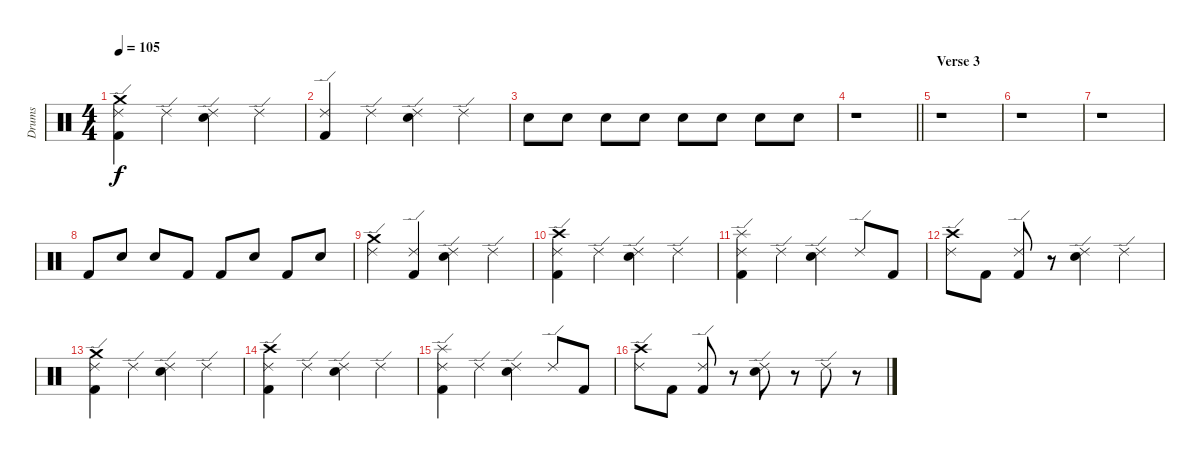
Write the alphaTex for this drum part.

\track ("Drums" "Drums") {instrument percussion}
\staff {score}
\articulation defaults
\ts (4 4)
\tempo 105
\clef neutral
\ks c
("Crash medium (hit)" "Ride (edge) 2" "Kick (hit) 2").4{dy f} "Ride (edge) 2".4 ("Ride (edge) 2" "Electric Snare (hit)").4 "Ride (edge) 2".4 |
("Ride (edge) 2" "Kick (hit) 2").4 "Ride (edge) 2".4 ("Ride (edge) 2" "Electric Snare (hit)").4 "Ride (edge) 2".4 |
"Electric Snare (hit)".8 "Electric Snare (hit)".8 "Electric Snare (hit)".8 "Electric Snare (hit)".8 "Electric Snare (hit)".8 "Electric Snare (hit)".8 "Electric Snare (hit)".8 "Electric Snare (hit)".8 |
\barLineRight lightlight
r.1 |
\section ("" "Verse 3")
r.1 |
r.1 |
r.1 |
"Kick (hit) 2".8 "Electric Snare (hit)".8 "Electric Snare (hit)".8 "Kick (hit) 2".8 "Kick (hit) 2".8 "Electric Snare (hit)".8 "Kick (hit) 2".8 "Electric Snare (hit)".8 |
("Crash medium (hit)" "Ride (edge) 2").4 ("Ride (edge) 2" "Kick (hit) 2").4 ("Ride (edge) 2" "Electric Snare (hit)").4 "Ride (edge) 2".4 |
("Crash high (hit)" "Ride (edge) 2" "Kick (hit) 2").4 "Ride (edge) 2".4 ("Ride (edge) 2" "Electric Snare (hit)").4 "Ride (edge) 2".4 |
("Splash (hit)" "Ride (edge) 2" "Kick (hit) 2").4 "Ride (edge) 2".4 ("Ride (edge) 2" "Electric Snare (hit)").4 "Ride (edge) 2".8 "Kick (hit) 2".8 |
("Crash high (hit)" "Ride (edge) 2").8 "Kick (hit) 2".8 ("Ride (edge) 2" "Kick (hit) 2").8 r.8 ("Ride (edge) 2" "Electric Snare (hit)").4 "Ride (edge) 2".4 |
("Crash medium (hit)" "Ride (edge) 2" "Kick (hit) 2").4 "Ride (edge) 2".4 ("Ride (edge) 2" "Electric Snare (hit)").4 "Ride (edge) 2".4 |
("Crash high (hit)" "Ride (edge) 2" "Kick (hit) 2").4 "Ride (edge) 2".4 ("Ride (edge) 2" "Electric Snare (hit)").4 "Ride (edge) 2".4 |
("Splash (hit)" "Ride (edge) 2" "Kick (hit) 2").4 "Ride (edge) 2".4 ("Ride (edge) 2" "Electric Snare (hit)").4 "Ride (edge) 2".8 "Kick (hit) 2".8 |
("Crash high (hit)" "Ride (edge) 2").8 "Kick (hit) 2".8 ("Ride (edge) 2" "Kick (hit) 2").8 r.8 ("Ride (edge) 2" "Electric Snare (hit)").8 r.8 "Ride (edge) 2".8 r.8
